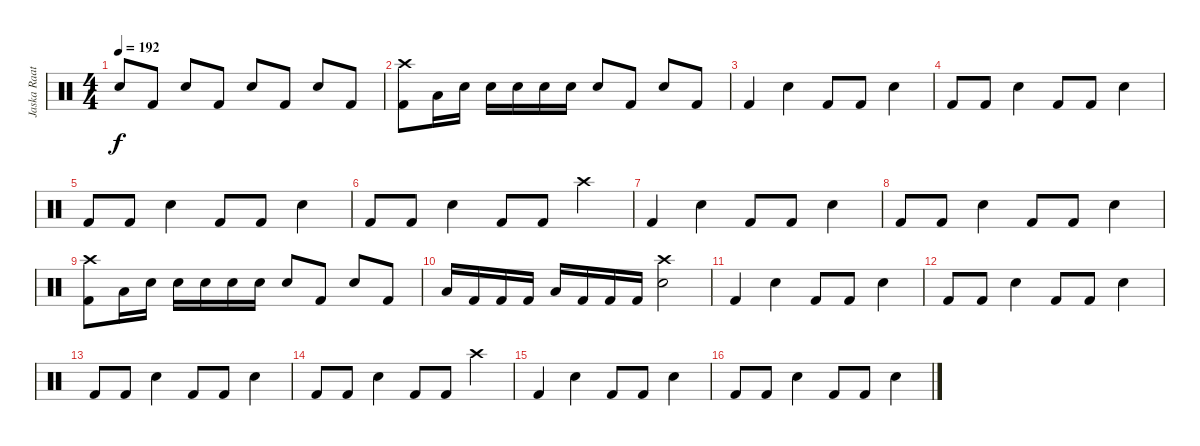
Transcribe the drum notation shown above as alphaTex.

\track ("Jaska Raatikainen " "Jaska Raat") {instrument percussion}
\staff {score}
\articulation defaults
\ts (4 4)
\tempo 192
\clef neutral
\ks c "Snare (hit) 2".8{dy f} "Kick (hit) 2".8 "Snare (hit) 2".8 "Kick (hit) 2".8 "Snare (hit) 2".8 "Kick (hit) 2".8 "Snare (hit) 2".8 "Kick (hit) 2".8
|
("Crash high (hit)" "Kick (hit) 2").8 "Low Floor Tom (hit)".16 "Snare (hit) 2".16 "Snare (hit) 2".16 "Snare (hit) 2".16 "Snare (hit) 2".16 "Snare (hit) 2".16 "Snare (hit) 2".8 "Kick (hit) 2".8 "Snare (hit) 2".8 "Kick (hit) 2".8 |
"Kick (hit) 2".4 "Snare (hit) 2".4 "Kick (hit) 2".8 "Kick (hit) 2".8 "Snare (hit) 2".4 |
"Kick (hit) 2".8 "Kick (hit) 2".8 "Snare (hit) 2".4 "Kick (hit) 2".8 "Kick (hit) 2".8 "Snare (hit) 2".4 |
"Kick (hit) 2".8 "Kick (hit) 2".8 "Snare (hit) 2".4 "Kick (hit) 2".8 "Kick (hit) 2".8 "Snare (hit) 2".4 |
"Kick (hit) 2".8 "Kick (hit) 2".8 "Snare (hit) 2".4 "Kick (hit) 2".8 "Kick (hit) 2".8 "Crash high (hit)".4 |
"Kick (hit) 2".4 "Snare (hit) 2".4 "Kick (hit) 2".8 "Kick (hit) 2".8 "Snare (hit) 2".4 |
"Kick (hit) 2".8 "Kick (hit) 2".8 "Snare (hit) 2".4 "Kick (hit) 2".8 "Kick (hit) 2".8 "Snare (hit) 2".4 |
("Crash high (hit)" "Kick (hit) 2").8 "Low Floor Tom (hit)".16 "Snare (hit) 2".16 "Snare (hit) 2".16 "Snare (hit) 2".16 "Snare (hit) 2".16 "Snare (hit) 2".16 "Snare (hit) 2".8 "Kick (hit) 2".8 "Snare (hit) 2".8 "Kick (hit) 2".8 |
"Low Floor Tom (hit)".16 "Kick (hit) 2".16 "Kick (hit) 2".16 "Kick (hit) 2".16 "Low Floor Tom (hit)".16 "Kick (hit) 2".16 "Kick (hit) 2".16 "Kick (hit) 2".16 ("Crash high (hit)" "Snare (hit) 2").2 |
"Kick (hit) 2".4 "Snare (hit) 2".4 "Kick (hit) 2".8 "Kick (hit) 2".8 "Snare (hit) 2".4 |
"Kick (hit) 2".8 "Kick (hit) 2".8 "Snare (hit) 2".4 "Kick (hit) 2".8 "Kick (hit) 2".8 "Snare (hit) 2".4 |
"Kick (hit) 2".8 "Kick (hit) 2".8 "Snare (hit) 2".4 "Kick (hit) 2".8 "Kick (hit) 2".8 "Snare (hit) 2".4 |
"Kick (hit) 2".8 "Kick (hit) 2".8 "Snare (hit) 2".4 "Kick (hit) 2".8 "Kick (hit) 2".8 "Crash high (hit)".4 |
"Kick (hit) 2".4 "Snare (hit) 2".4 "Kick (hit) 2".8 "Kick (hit) 2".8 "Snare (hit) 2".4 |
"Kick (hit) 2".8 "Kick (hit) 2".8 "Snare (hit) 2".4 "Kick (hit) 2".8 "Kick (hit) 2".8 "Snare (hit) 2".4
